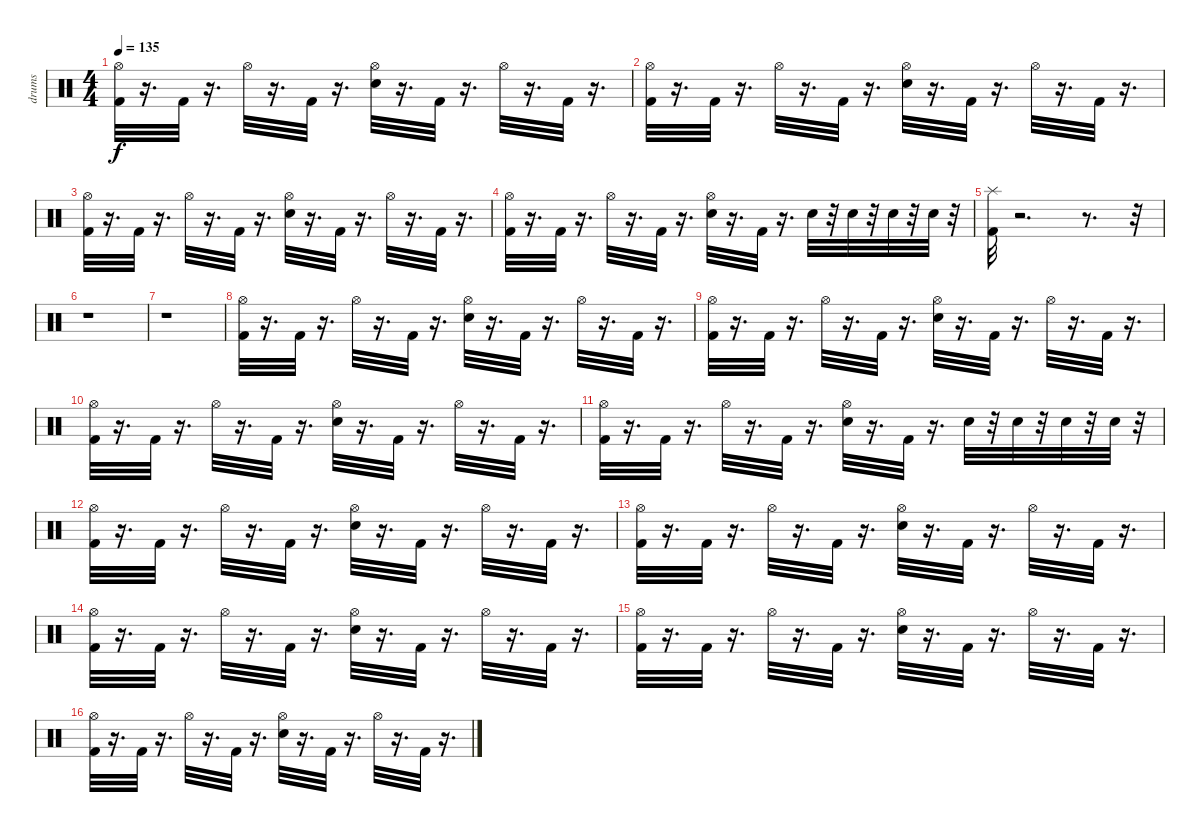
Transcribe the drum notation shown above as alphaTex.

\track ("drums" "drums") {instrument percussion}
\staff {score}
\articulation defaults
\ts (4 4)
\tempo 135
\clef neutral
\ks c
("Hi-Hat (open)" "Kick (hit) 2").32{dy f} r.16{d} "Kick (hit) 2".32 r.16{d} "Hi-Hat (open)".32 r.16{d} "Kick (hit) 2".32 r.16{d} ("Hi-Hat (open)" "Snare (hit) 2").32 r.16{d} "Kick (hit) 2".32 r.16{d} "Hi-Hat (open)".32 r.16{d} "Kick (hit) 2".32 r.16{d} |
("Hi-Hat (open)" "Kick (hit) 2").32 r.16{d} "Kick (hit) 2".32 r.16{d} "Hi-Hat (open)".32 r.16{d} "Kick (hit) 2".32 r.16{d} ("Hi-Hat (open)" "Snare (hit) 2").32 r.16{d} "Kick (hit) 2".32 r.16{d} "Hi-Hat (open)".32 r.16{d} "Kick (hit) 2".32 r.16{d} |
("Hi-Hat (open)" "Kick (hit) 2").32 r.16{d} "Kick (hit) 2".32 r.16{d} "Hi-Hat (open)".32 r.16{d} "Kick (hit) 2".32 r.16{d} ("Hi-Hat (open)" "Snare (hit) 2").32 r.16{d} "Kick (hit) 2".32 r.16{d} "Hi-Hat (open)".32 r.16{d} "Kick (hit) 2".32 r.16{d} |
("Hi-Hat (open)" "Kick (hit) 2").32 r.16{d} "Kick (hit) 2".32 r.16{d} "Hi-Hat (open)".32 r.16{d} "Kick (hit) 2".32 r.16{d} ("Hi-Hat (open)" "Snare (hit) 2").32 r.16{d} "Kick (hit) 2".32 r.16{d} "Snare (hit) 2".32 r.32 "Snare (hit) 2".32 r.32 "Snare (hit) 2".32 r.32 "Snare (hit) 2".32 r.32 |
("Splash (hit)" "Kick (hit) 2").32 r.2{d} r.8{d} r.32 |
r.1 |
r.1 |
("Hi-Hat (open)" "Kick (hit) 2").32 r.16{d} "Kick (hit) 2".32 r.16{d} "Hi-Hat (open)".32 r.16{d} "Kick (hit) 2".32 r.16{d} ("Hi-Hat (open)" "Snare (hit) 2").32 r.16{d} "Kick (hit) 2".32 r.16{d} "Hi-Hat (open)".32 r.16{d} "Kick (hit) 2".32 r.16{d} |
("Hi-Hat (open)" "Kick (hit) 2").32 r.16{d} "Kick (hit) 2".32 r.16{d} "Hi-Hat (open)".32 r.16{d} "Kick (hit) 2".32 r.16{d} ("Hi-Hat (open)" "Snare (hit) 2").32 r.16{d} "Kick (hit) 2".32 r.16{d} "Hi-Hat (open)".32 r.16{d} "Kick (hit) 2".32 r.16{d} |
("Hi-Hat (open)" "Kick (hit) 2").32 r.16{d} "Kick (hit) 2".32 r.16{d} "Hi-Hat (open)".32 r.16{d} "Kick (hit) 2".32 r.16{d} ("Hi-Hat (open)" "Snare (hit) 2").32 r.16{d} "Kick (hit) 2".32 r.16{d} "Hi-Hat (open)".32 r.16{d} "Kick (hit) 2".32 r.16{d} |
("Hi-Hat (open)" "Kick (hit) 2").32 r.16{d} "Kick (hit) 2".32 r.16{d} "Hi-Hat (open)".32 r.16{d} "Kick (hit) 2".32 r.16{d} ("Hi-Hat (open)" "Snare (hit) 2").32 r.16{d} "Kick (hit) 2".32 r.16{d} "Snare (hit) 2".32 r.32 "Snare (hit) 2".32 r.32 "Snare (hit) 2".32 r.32 "Snare (hit) 2".32 r.32 |
("Hi-Hat (open)" "Kick (hit) 2").32 r.16{d} "Kick (hit) 2".32 r.16{d} "Hi-Hat (open)".32 r.16{d} "Kick (hit) 2".32 r.16{d} ("Hi-Hat (open)" "Snare (hit) 2").32 r.16{d} "Kick (hit) 2".32 r.16{d} "Hi-Hat (open)".32 r.16{d} "Kick (hit) 2".32 r.16{d} |
("Hi-Hat (open)" "Kick (hit) 2").32 r.16{d} "Kick (hit) 2".32 r.16{d} "Hi-Hat (open)".32 r.16{d} "Kick (hit) 2".32 r.16{d} ("Hi-Hat (open)" "Snare (hit) 2").32 r.16{d} "Kick (hit) 2".32 r.16{d} "Hi-Hat (open)".32 r.16{d} "Kick (hit) 2".32 r.16{d} |
("Hi-Hat (open)" "Kick (hit) 2").32 r.16{d} "Kick (hit) 2".32 r.16{d} "Hi-Hat (open)".32 r.16{d} "Kick (hit) 2".32 r.16{d} ("Hi-Hat (open)" "Snare (hit) 2").32 r.16{d} "Kick (hit) 2".32 r.16{d} "Hi-Hat (open)".32 r.16{d} "Kick (hit) 2".32 r.16{d} |
("Hi-Hat (open)" "Kick (hit) 2").32 r.16{d} "Kick (hit) 2".32 r.16{d} "Hi-Hat (open)".32 r.16{d} "Kick (hit) 2".32 r.16{d} ("Hi-Hat (open)" "Snare (hit) 2").32 r.16{d} "Kick (hit) 2".32 r.16{d} "Hi-Hat (open)".32 r.16{d} "Kick (hit) 2".32 r.16{d} |
("Hi-Hat (open)" "Kick (hit) 2").32 r.16{d} "Kick (hit) 2".32 r.16{d} "Hi-Hat (open)".32 r.16{d} "Kick (hit) 2".32 r.16{d} ("Hi-Hat (open)" "Snare (hit) 2").32 r.16{d} "Kick (hit) 2".32 r.16{d} "Hi-Hat (open)".32 r.16{d} "Kick (hit) 2".32 r.16{d}
